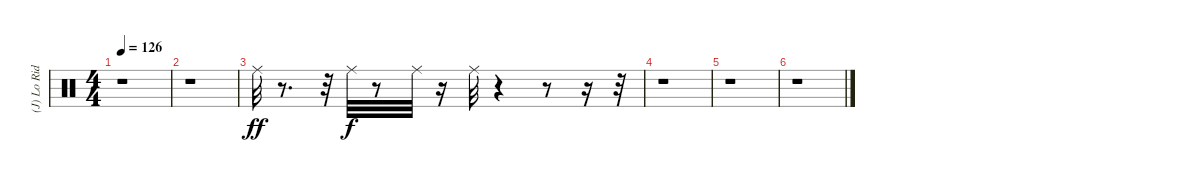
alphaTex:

\track ("(J) Lo Ride Cymbal" "(J) Lo Rid") {instrument percussion}
\staff {score}
\articulation defaults
\ts (4 4)
\tempo 126
\clef neutral
\ks c
r.1{dy f} |
r.1 |
"Ride (middle)".32{dy ff} r.8{d} r.32 "Ride (middle)".32{dy f} r.8 "Ride (middle)".32 r.16 "Ride (middle)".32 r.4 r.8 r.16 r.32 |
r.1 |
r.1 |
r.1
